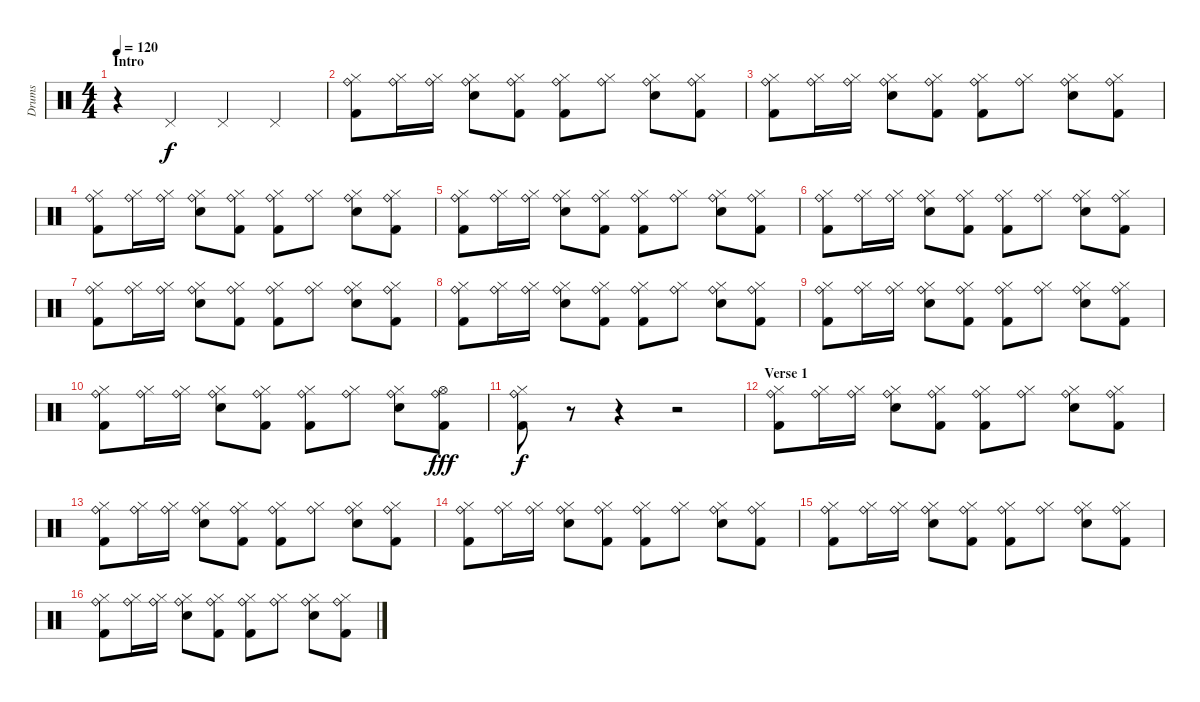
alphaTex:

\track ("Drums" "Drums") {instrument percussion}
\staff {score}
\articulation defaults
\ts (4 4)
\section ("" "Intro                                                                                               ")
\tempo 120
\clef neutral
\ks c
r.4{dy f} "Pedal Hi-Hat (hit)".4 "Pedal Hi-Hat (hit)".4 "Pedal Hi-Hat (hit)".4 |
("Ride (bell)" "Hi-Hat (closed)" "Kick (hit) 2").8 ("Ride (bell)" "Hi-Hat (closed)").16 ("Ride (bell)" "Hi-Hat (closed)").16 ("Ride (bell)" "Hi-Hat (closed)" "Snare (hit) 2").8 ("Ride (bell)" "Hi-Hat (closed)" "Kick (hit) 2").8 ("Ride (bell)" "Hi-Hat (closed)" "Kick (hit) 2").8 ("Ride (bell)" "Hi-Hat (closed)").8 ("Ride (bell)" "Hi-Hat (closed)" "Snare (hit) 2").8 ("Ride (bell)" "Hi-Hat (closed)" "Kick (hit) 2").8 |
("Ride (bell)" "Hi-Hat (closed)" "Kick (hit) 2").8 ("Ride (bell)" "Hi-Hat (closed)").16 ("Ride (bell)" "Hi-Hat (closed)").16 ("Ride (bell)" "Hi-Hat (closed)" "Snare (hit) 2").8 ("Ride (bell)" "Hi-Hat (closed)" "Kick (hit) 2").8 ("Ride (bell)" "Hi-Hat (closed)" "Kick (hit) 2").8 ("Ride (bell)" "Hi-Hat (closed)").8 ("Ride (bell)" "Hi-Hat (closed)" "Snare (hit) 2").8 ("Ride (bell)" "Hi-Hat (closed)" "Kick (hit) 2").8 |
("Ride (bell)" "Hi-Hat (closed)" "Kick (hit) 2").8 ("Ride (bell)" "Hi-Hat (closed)").16 ("Ride (bell)" "Hi-Hat (closed)").16 ("Ride (bell)" "Hi-Hat (closed)" "Snare (hit) 2").8 ("Ride (bell)" "Hi-Hat (closed)" "Kick (hit) 2").8 ("Ride (bell)" "Hi-Hat (closed)" "Kick (hit) 2").8 ("Ride (bell)" "Hi-Hat (closed)").8 ("Ride (bell)" "Hi-Hat (closed)" "Snare (hit) 2").8 ("Ride (bell)" "Hi-Hat (closed)" "Kick (hit) 2").8 |
("Ride (bell)" "Hi-Hat (closed)" "Kick (hit) 2").8 ("Ride (bell)" "Hi-Hat (closed)").16 ("Ride (bell)" "Hi-Hat (closed)").16 ("Ride (bell)" "Hi-Hat (closed)" "Snare (hit) 2").8 ("Ride (bell)" "Hi-Hat (closed)" "Kick (hit) 2").8 ("Ride (bell)" "Hi-Hat (closed)" "Kick (hit) 2").8 ("Ride (bell)" "Hi-Hat (closed)").8 ("Ride (bell)" "Hi-Hat (closed)" "Snare (hit) 2").8 ("Ride (bell)" "Hi-Hat (closed)" "Kick (hit) 2").8 |
("Ride (bell)" "Hi-Hat (closed)" "Kick (hit) 2").8 ("Ride (bell)" "Hi-Hat (closed)").16 ("Ride (bell)" "Hi-Hat (closed)").16 ("Ride (bell)" "Hi-Hat (closed)" "Snare (hit) 2").8 ("Ride (bell)" "Hi-Hat (closed)" "Kick (hit) 2").8 ("Ride (bell)" "Hi-Hat (closed)" "Kick (hit) 2").8 ("Ride (bell)" "Hi-Hat (closed)").8 ("Ride (bell)" "Hi-Hat (closed)" "Snare (hit) 2").8 ("Ride (bell)" "Hi-Hat (closed)" "Kick (hit) 2").8 |
("Ride (bell)" "Hi-Hat (closed)" "Kick (hit) 2").8 ("Ride (bell)" "Hi-Hat (closed)").16 ("Ride (bell)" "Hi-Hat (closed)").16 ("Ride (bell)" "Hi-Hat (closed)" "Snare (hit) 2").8 ("Ride (bell)" "Hi-Hat (closed)" "Kick (hit) 2").8 ("Ride (bell)" "Hi-Hat (closed)" "Kick (hit) 2").8 ("Ride (bell)" "Hi-Hat (closed)").8 ("Ride (bell)" "Hi-Hat (closed)" "Snare (hit) 2").8 ("Ride (bell)" "Hi-Hat (closed)" "Kick (hit) 2").8 |
("Ride (bell)" "Hi-Hat (closed)" "Kick (hit) 2").8 ("Ride (bell)" "Hi-Hat (closed)").16 ("Ride (bell)" "Hi-Hat (closed)").16 ("Ride (bell)" "Hi-Hat (closed)" "Snare (hit) 2").8 ("Ride (bell)" "Hi-Hat (closed)" "Kick (hit) 2").8 ("Ride (bell)" "Hi-Hat (closed)" "Kick (hit) 2").8 ("Ride (bell)" "Hi-Hat (closed)").8 ("Ride (bell)" "Hi-Hat (closed)" "Snare (hit) 2").8 ("Ride (bell)" "Hi-Hat (closed)" "Kick (hit) 2").8 |
("Ride (bell)" "Hi-Hat (closed)" "Kick (hit) 2").8 ("Ride (bell)" "Hi-Hat (closed)").16 ("Ride (bell)" "Hi-Hat (closed)").16 ("Ride (bell)" "Hi-Hat (closed)" "Snare (hit) 2").8 ("Ride (bell)" "Hi-Hat (closed)" "Kick (hit) 2").8 ("Ride (bell)" "Hi-Hat (closed)" "Kick (hit) 2").8 ("Ride (bell)" "Hi-Hat (closed)").8 ("Ride (bell)" "Hi-Hat (closed)" "Snare (hit) 2").8 ("Ride (bell)" "Hi-Hat (closed)" "Kick (hit) 2").8 |
("Ride (bell)" "Hi-Hat (closed)" "Kick (hit) 2").8 ("Ride (bell)" "Hi-Hat (closed)").16 ("Ride (bell)" "Hi-Hat (closed)").16 ("Ride (bell)" "Hi-Hat (closed)" "Snare (hit) 2").8 ("Ride (bell)" "Hi-Hat (closed)" "Kick (hit) 2").8 ("Ride (bell)" "Hi-Hat (closed)" "Kick (hit) 2").8 ("Ride (bell)" "Hi-Hat (closed)").8 ("Ride (bell)" "Hi-Hat (closed)" "Snare (hit) 2").8 ("Ride (bell)" "Hi-Hat (open)" "Kick (hit) 2").8{dy fff} |
("Ride (bell)" "Hi-Hat (closed)" "Kick (hit) 2").8{dy f} r.8 r.4 r.2 |
\section ("" "Verse 1")
("Ride (bell)" "Hi-Hat (closed)" "Kick (hit) 2").8 ("Ride (bell)" "Hi-Hat (closed)").16 ("Ride (bell)" "Hi-Hat (closed)").16 ("Ride (bell)" "Hi-Hat (closed)" "Snare (hit) 2").8 ("Ride (bell)" "Hi-Hat (closed)" "Kick (hit) 2").8 ("Ride (bell)" "Hi-Hat (closed)" "Kick (hit) 2").8 ("Ride (bell)" "Hi-Hat (closed)").8 ("Ride (bell)" "Hi-Hat (closed)" "Snare (hit) 2").8 ("Ride (bell)" "Hi-Hat (closed)" "Kick (hit) 2").8 |
("Ride (bell)" "Hi-Hat (closed)" "Kick (hit) 2").8 ("Ride (bell)" "Hi-Hat (closed)").16 ("Ride (bell)" "Hi-Hat (closed)").16 ("Ride (bell)" "Hi-Hat (closed)" "Snare (hit) 2").8 ("Ride (bell)" "Hi-Hat (closed)" "Kick (hit) 2").8 ("Ride (bell)" "Hi-Hat (closed)" "Kick (hit) 2").8 ("Ride (bell)" "Hi-Hat (closed)").8 ("Ride (bell)" "Hi-Hat (closed)" "Snare (hit) 2").8 ("Ride (bell)" "Hi-Hat (closed)" "Kick (hit) 2").8 |
("Ride (bell)" "Hi-Hat (closed)" "Kick (hit) 2").8 ("Ride (bell)" "Hi-Hat (closed)").16 ("Ride (bell)" "Hi-Hat (closed)").16 ("Ride (bell)" "Hi-Hat (closed)" "Snare (hit) 2").8 ("Ride (bell)" "Hi-Hat (closed)" "Kick (hit) 2").8 ("Ride (bell)" "Hi-Hat (closed)" "Kick (hit) 2").8 ("Ride (bell)" "Hi-Hat (closed)").8 ("Ride (bell)" "Hi-Hat (closed)" "Snare (hit) 2").8 ("Ride (bell)" "Hi-Hat (closed)" "Kick (hit) 2").8 |
("Ride (bell)" "Hi-Hat (closed)" "Kick (hit) 2").8 ("Ride (bell)" "Hi-Hat (closed)").16 ("Ride (bell)" "Hi-Hat (closed)").16 ("Ride (bell)" "Hi-Hat (closed)" "Snare (hit) 2").8 ("Ride (bell)" "Hi-Hat (closed)" "Kick (hit) 2").8 ("Ride (bell)" "Hi-Hat (closed)" "Kick (hit) 2").8 ("Ride (bell)" "Hi-Hat (closed)").8 ("Ride (bell)" "Hi-Hat (closed)" "Snare (hit) 2").8 ("Ride (bell)" "Hi-Hat (closed)" "Kick (hit) 2").8 |
("Ride (bell)" "Hi-Hat (closed)" "Kick (hit) 2").8 ("Ride (bell)" "Hi-Hat (closed)").16 ("Ride (bell)" "Hi-Hat (closed)").16 ("Ride (bell)" "Hi-Hat (closed)" "Snare (hit) 2").8 ("Ride (bell)" "Hi-Hat (closed)" "Kick (hit) 2").8 ("Ride (bell)" "Hi-Hat (closed)" "Kick (hit) 2").8 ("Ride (bell)" "Hi-Hat (closed)").8 ("Ride (bell)" "Hi-Hat (closed)" "Snare (hit) 2").8 ("Ride (bell)" "Hi-Hat (closed)" "Kick (hit) 2").8
